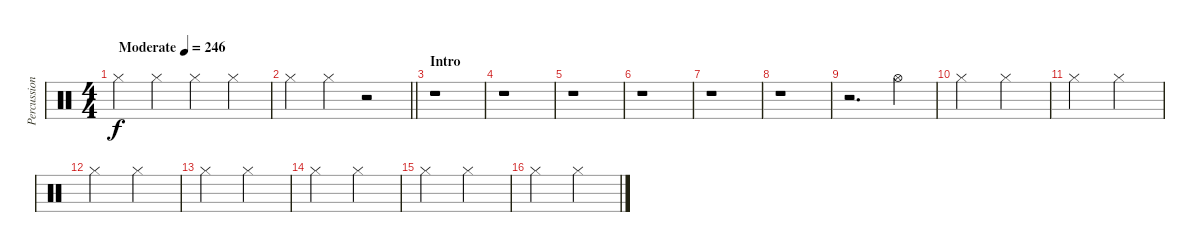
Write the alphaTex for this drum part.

\track ("Percussions" "Percussion") {instrument percussion}
\staff {score}
\articulation defaults
\ts (4 4)
\tempo (246 "Moderate")
\clef neutral
\ks c "Hi-Hat (closed)".4{dy f} "Hi-Hat (closed)".4 "Hi-Hat (closed)".4 "Hi-Hat (closed)".4
|
\barLineRight lightlight "Hi-Hat (closed)".4 "Hi-Hat (closed)".4
r.2 |
\section ("" "Intro")
r.1 |
r.1 |
r.1 |
r.1 |
r.1 |
r.1 |
r.2{d} "Hi-Hat (open)".4 |
"Hi-Hat (closed)".2 "Hi-Hat (closed)".2 |
"Hi-Hat (closed)".2 "Hi-Hat (closed)".2 |
"Hi-Hat (closed)".2 "Hi-Hat (closed)".2 |
"Hi-Hat (closed)".2 "Hi-Hat (closed)".2 |
"Hi-Hat (closed)".2 "Hi-Hat (closed)".2 |
"Hi-Hat (closed)".2 "Hi-Hat (closed)".2 |
"Hi-Hat (closed)".2 "Hi-Hat (closed)".2
